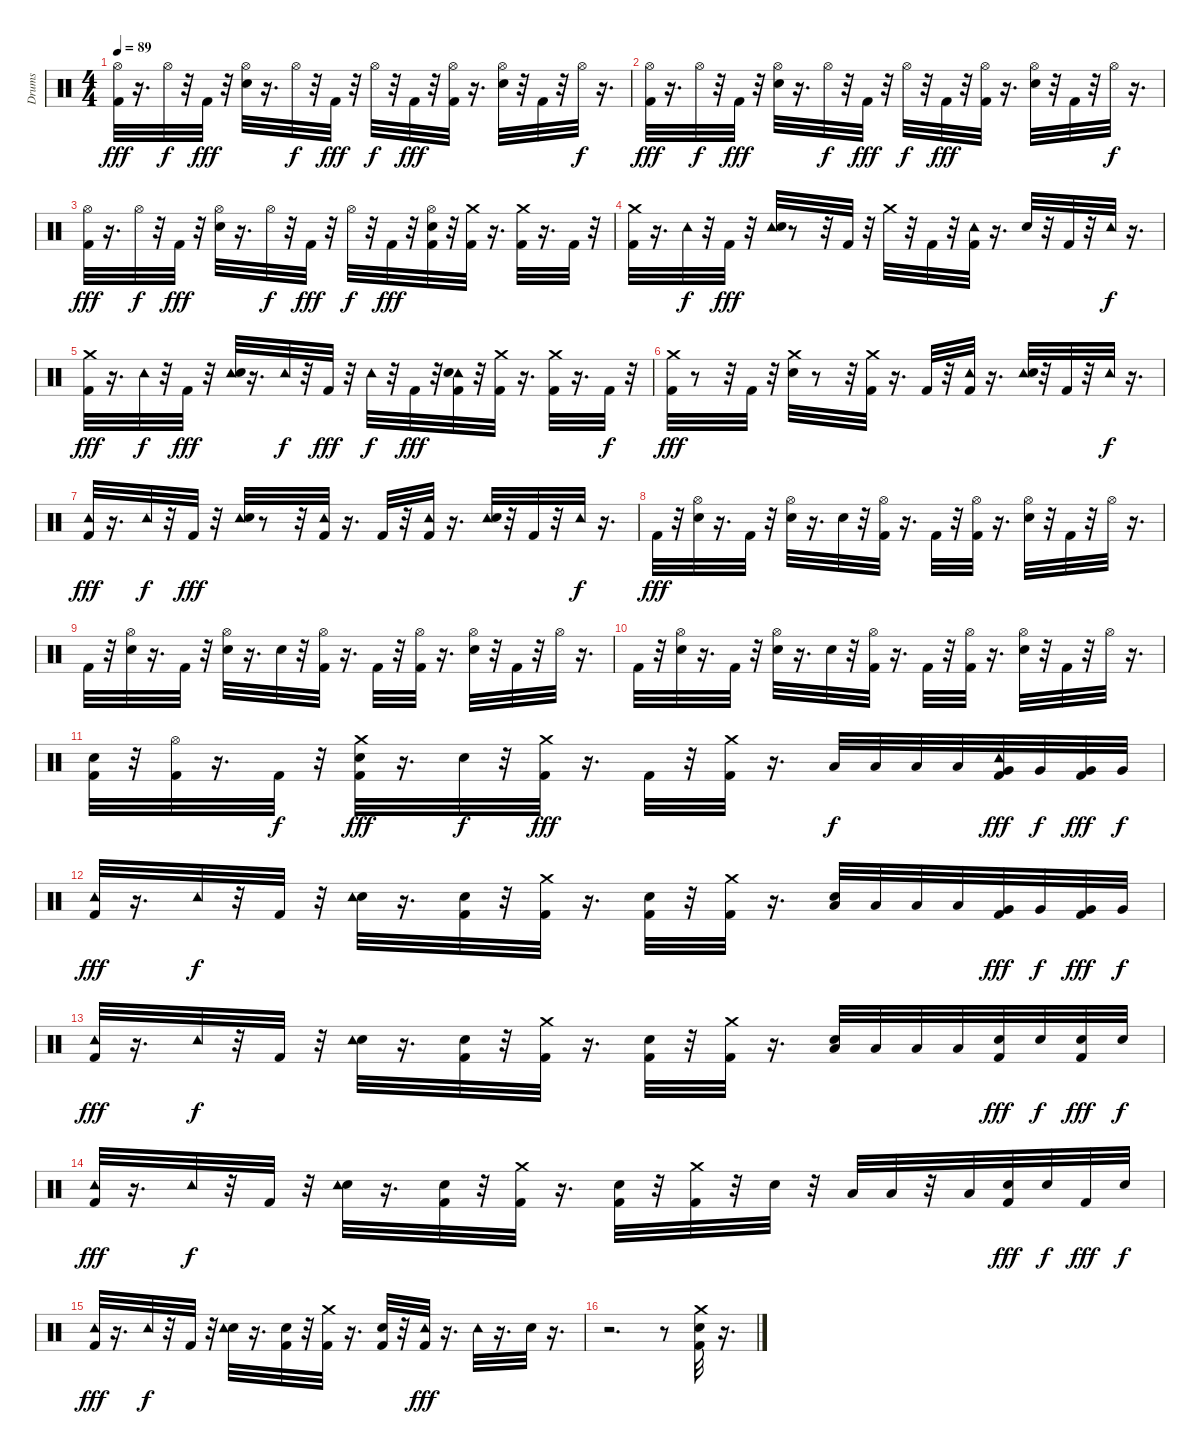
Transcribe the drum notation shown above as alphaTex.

\track ("Drums" "Drums") {instrument percussion}
\staff {score}
\articulation defaults
\ts (4 4)
\tempo 89
\clef neutral
\ks c
("Hi-Hat (open)" "Kick (hit) 2").32{dy fff} r.16{d} "Hi-Hat (open)".32{dy f} r.32 "Kick (hit) 2".32{dy fff} r.32 ("Hi-Hat (open)" "Electric Snare (hit)").32 r.16{d} "Hi-Hat (open)".32{dy f} r.32 "Kick (hit) 2".32{dy fff} r.32 "Hi-Hat (open)".32{dy f} r.32 "Kick (hit) 2".32{dy fff} r.32 ("Hi-Hat (open)" "Kick (hit) 2").32 r.16{d} ("Electric Snare (hit)" "Hi-Hat (open)").32 r.32 "Kick (hit) 2".32 r.32 "Hi-Hat (open)".32{dy f} r.16{d} |
("Hi-Hat (open)" "Kick (hit) 2").32{dy fff} r.16{d} "Hi-Hat (open)".32{dy f} r.32 "Kick (hit) 2".32{dy fff} r.32 ("Hi-Hat (open)" "Electric Snare (hit)").32 r.16{d} "Hi-Hat (open)".32{dy f} r.32 "Kick (hit) 2".32{dy fff} r.32 "Hi-Hat (open)".32{dy f} r.32 "Kick (hit) 2".32{dy fff} r.32 ("Hi-Hat (open)" "Kick (hit) 2").32 r.16{d} ("Electric Snare (hit)" "Hi-Hat (open)").32 r.32 "Kick (hit) 2".32 r.32 "Hi-Hat (open)".32{dy f} r.16{d} |
("Hi-Hat (open)" "Kick (hit) 2").32{dy fff} r.16{d} "Hi-Hat (open)".32{dy f} r.32 "Kick (hit) 2".32{dy fff} r.32 ("Hi-Hat (open)" "Electric Snare (hit)").32 r.16{d} "Hi-Hat (open)".32{dy f} r.32 "Kick (hit) 2".32{dy fff} r.32 "Hi-Hat (open)".32{dy f} r.32 "Kick (hit) 2".32{dy fff} r.32 ("Electric Snare (hit)" "Hi-Hat (open)" "Kick (hit) 2").32 r.32 ("Crash medium (hit)" "Kick (hit) 2").32 r.16{d} ("Kick (hit) 2" "Crash medium (hit)").32 r.16{d} "Kick (hit) 2".32 r.32 |
("Crash medium (hit)" "Kick (hit) 2").32 r.16{d} "Tambourine (hit)".32{dy f} r.32 "Kick (hit) 2".32{dy fff} r.32 ("Tambourine (hit)" "Electric Snare (hit)").32 r.8 r.32 "Kick (hit) 2".32 r.32 "Crash medium (hit)".32 r.32 "Kick (hit) 2".32 r.32 ("Tambourine (hit)" "Kick (hit) 2").32 r.16{d} "Electric Snare (hit)".32 r.32 "Kick (hit) 2".32 r.32 "Tambourine (hit)".32{dy f} r.16{d} |
("Crash medium (hit)" "Kick (hit) 2").32{dy fff} r.16{d} "Tambourine (hit)".32{dy f} r.32 "Kick (hit) 2".32{dy fff} r.32 ("Tambourine (hit)" "Electric Snare (hit)").32 r.16{d} "Tambourine (hit)".32{dy f} r.32 "Kick (hit) 2".32{dy fff} r.32 "Tambourine (hit)".32{dy f} r.32 "Kick (hit) 2".32{dy fff} r.32 ("Tambourine (hit)" "Electric Snare (hit)" "Kick (hit) 2").32 r.32 ("Crash medium (hit)" "Kick (hit) 2").32 r.16{d} ("Kick (hit) 2" "Crash medium (hit)").32 r.16{d} "Kick (hit) 2".32{dy f} r.32 |
("Crash medium (hit)" "Kick (hit) 2").32{dy fff} r.8 r.32 "Kick (hit) 2".32 r.32 ("Crash medium (hit)" "Electric Snare (hit)").32 r.8 r.32 ("Crash medium (hit)" "Kick (hit) 2").32 r.16{d} "Kick (hit) 2".32 r.32 ("Tambourine (hit)" "Kick (hit) 2").32 r.16{d} ("Tambourine (hit)" "Electric Snare (hit)").32 r.32 "Kick (hit) 2".32 r.32 "Tambourine (hit)".32{dy f} r.16{d} |
("Tambourine (hit)" "Kick (hit) 2").32{dy fff} r.16{d} "Tambourine (hit)".32{dy f} r.32 "Kick (hit) 2".32{dy fff} r.32 ("Tambourine (hit)" "Electric Snare (hit)").32 r.8 r.32 ("Tambourine (hit)" "Kick (hit) 2").32 r.16{d} "Kick (hit) 2".32 r.32 ("Tambourine (hit)" "Kick (hit) 2").32 r.16{d} ("Tambourine (hit)" "Electric Snare (hit)").32 r.32 "Kick (hit) 2".32 r.32 "Tambourine (hit)".32{dy f} r.16{d} |
"Kick (hit) 2".32{dy fff} r.32 ("Hi-Hat (open)" "Electric Snare (hit)").32 r.16{d} "Kick (hit) 2".32 r.32 ("Hi-Hat (open)" "Electric Snare (hit)").32 r.16{d} "Electric Snare (hit)".32 r.32 ("Kick (hit) 2" "Hi-Hat (open)").32 r.16{d} "Kick (hit) 2".32 r.32 ("Hi-Hat (open)" "Kick (hit) 2").32 r.16{d} ("Electric Snare (hit)" "Hi-Hat (open)").32 r.32 "Kick (hit) 2".32 r.32 "Hi-Hat (open)".32 r.16{d} |
"Kick (hit) 2".32 r.32 ("Hi-Hat (open)" "Electric Snare (hit)").32 r.16{d} "Kick (hit) 2".32 r.32 ("Hi-Hat (open)" "Electric Snare (hit)").32 r.16{d} "Electric Snare (hit)".32 r.32 ("Kick (hit) 2" "Hi-Hat (open)").32 r.16{d} "Kick (hit) 2".32 r.32 ("Hi-Hat (open)" "Kick (hit) 2").32 r.16{d} ("Electric Snare (hit)" "Hi-Hat (open)").32 r.32 "Kick (hit) 2".32 r.32 "Hi-Hat (open)".32 r.16{d} |
"Kick (hit) 2".32 r.32 ("Hi-Hat (open)" "Electric Snare (hit)").32 r.16{d} "Kick (hit) 2".32 r.32 ("Hi-Hat (open)" "Electric Snare (hit)").32 r.16{d} "Electric Snare (hit)".32 r.32 ("Kick (hit) 2" "Hi-Hat (open)").32 r.16{d} "Kick (hit) 2".32 r.32 ("Hi-Hat (open)" "Kick (hit) 2").32 r.16{d} ("Electric Snare (hit)" "Hi-Hat (open)").32 r.32 "Kick (hit) 2".32 r.32 "Hi-Hat (open)".32 r.16{d} |
("Electric Snare (hit)" "Kick (hit) 2").32 r.32 ("Hi-Hat (open)" "Kick (hit) 2").32 r.16{d} "Kick (hit) 2".32{dy f} r.32 ("Crash medium (hit)" "Electric Snare (hit)" "Kick (hit) 2").32{dy fff} r.16{d} "Electric Snare (hit)".32{dy f} r.32 ("Crash medium (hit)" "Kick (hit) 2").32{dy fff} r.16{d} "Kick (hit) 2".32 r.32 ("Crash medium (hit)" "Kick (hit) 2").32 r.16{d} "Low Tom (hit)".32{dy f} "Low Tom (hit)".32 "Low Tom (hit)".32 "Low Tom (hit)".32 ("Kick (hit) 2" "Tambourine (hit)" "Very Low Tom (hit)").32{dy fff} "Very Low Tom (hit)".32{dy f} ("Kick (hit) 2" "Very Low Tom (hit)").32{dy fff} "Very Low Tom (hit)".32{dy f} |
("Kick (hit) 2" "Tambourine (hit)").32{dy fff} r.16{d} "Tambourine (hit)".32{dy f} r.32 "Kick (hit) 2".32 r.32 ("Electric Snare (hit)" "Tambourine (hit)").32 r.16{d} ("Electric Snare (hit)" "Kick (hit) 2").32 r.32 ("Kick (hit) 2" "Crash medium (hit)").32 r.16{d} ("Electric Snare (hit)" "Kick (hit) 2").32 r.32 ("Kick (hit) 2" "Crash medium (hit)").32 r.16{d} ("Electric Snare (hit)" "Low Tom (hit)").32 "Low Tom (hit)".32 "Low Tom (hit)".32 "Low Tom (hit)".32 ("Kick (hit) 2" "Very Low Tom (hit)").32{dy fff} "Very Low Tom (hit)".32{dy f} ("Kick (hit) 2" "Very Low Tom (hit)").32{dy fff} "Very Low Tom (hit)".32{dy f} |
("Kick (hit) 2" "Tambourine (hit)").32{dy fff} r.16{d} "Tambourine (hit)".32{dy f} r.32 "Kick (hit) 2".32 r.32 ("Electric Snare (hit)" "Tambourine (hit)").32 r.16{d} ("Electric Snare (hit)" "Kick (hit) 2").32 r.32 ("Kick (hit) 2" "Crash medium (hit)").32 r.16{d} ("Electric Snare (hit)" "Kick (hit) 2").32 r.32 ("Kick (hit) 2" "Crash medium (hit)").32 r.16{d} ("Electric Snare (hit)" "Low Tom (hit)").32 "Low Tom (hit)".32 "Low Tom (hit)".32 "Low Tom (hit)".32 ("Electric Snare (hit)" "Kick (hit) 2").32{dy fff} "Electric Snare (hit)".32{dy f} ("Electric Snare (hit)" "Kick (hit) 2").32{dy fff} "Electric Snare (hit)".32{dy f} |
("Kick (hit) 2" "Tambourine (hit)").32{dy fff} r.16{d} "Tambourine (hit)".32{dy f} r.32 "Kick (hit) 2".32 r.32 ("Electric Snare (hit)" "Tambourine (hit)").32 r.16{d} ("Electric Snare (hit)" "Kick (hit) 2").32 r.32 ("Kick (hit) 2" "Crash medium (hit)").32 r.16{d} ("Electric Snare (hit)" "Kick (hit) 2").32 r.32 ("Kick (hit) 2" "Crash medium (hit)").32 r.32 "Electric Snare (hit)".32 r.32 "Low Tom (hit)".32 "Low Tom (hit)".32 r.32 "Low Tom (hit)".32 ("Electric Snare (hit)" "Kick (hit) 2").32{dy fff} "Electric Snare (hit)".32{dy f} "Kick (hit) 2".32{dy fff} "Electric Snare (hit)".32{dy f} |
("Kick (hit) 2" "Tambourine (hit)").32{dy fff} r.16{d} "Tambourine (hit)".32{dy f} r.32 "Kick (hit) 2".32 r.32 ("Electric Snare (hit)" "Tambourine (hit)").32 r.16{d} ("Electric Snare (hit)" "Kick (hit) 2").32 r.32 ("Crash medium (hit)" "Kick (hit) 2").32 r.16{d} ("Electric Snare (hit)" "Kick (hit) 2").32 r.32 ("Tambourine (hit)" "Kick (hit) 2").32{dy fff} r.16{d} "Tambourine (hit)".32 r.16{d} "Electric Snare (hit)".32 r.16{d} |
r.2{d} r.8 ("Crash medium (hit)" "Electric Snare (hit)" "Kick (hit) 2").32 r.16{d}
